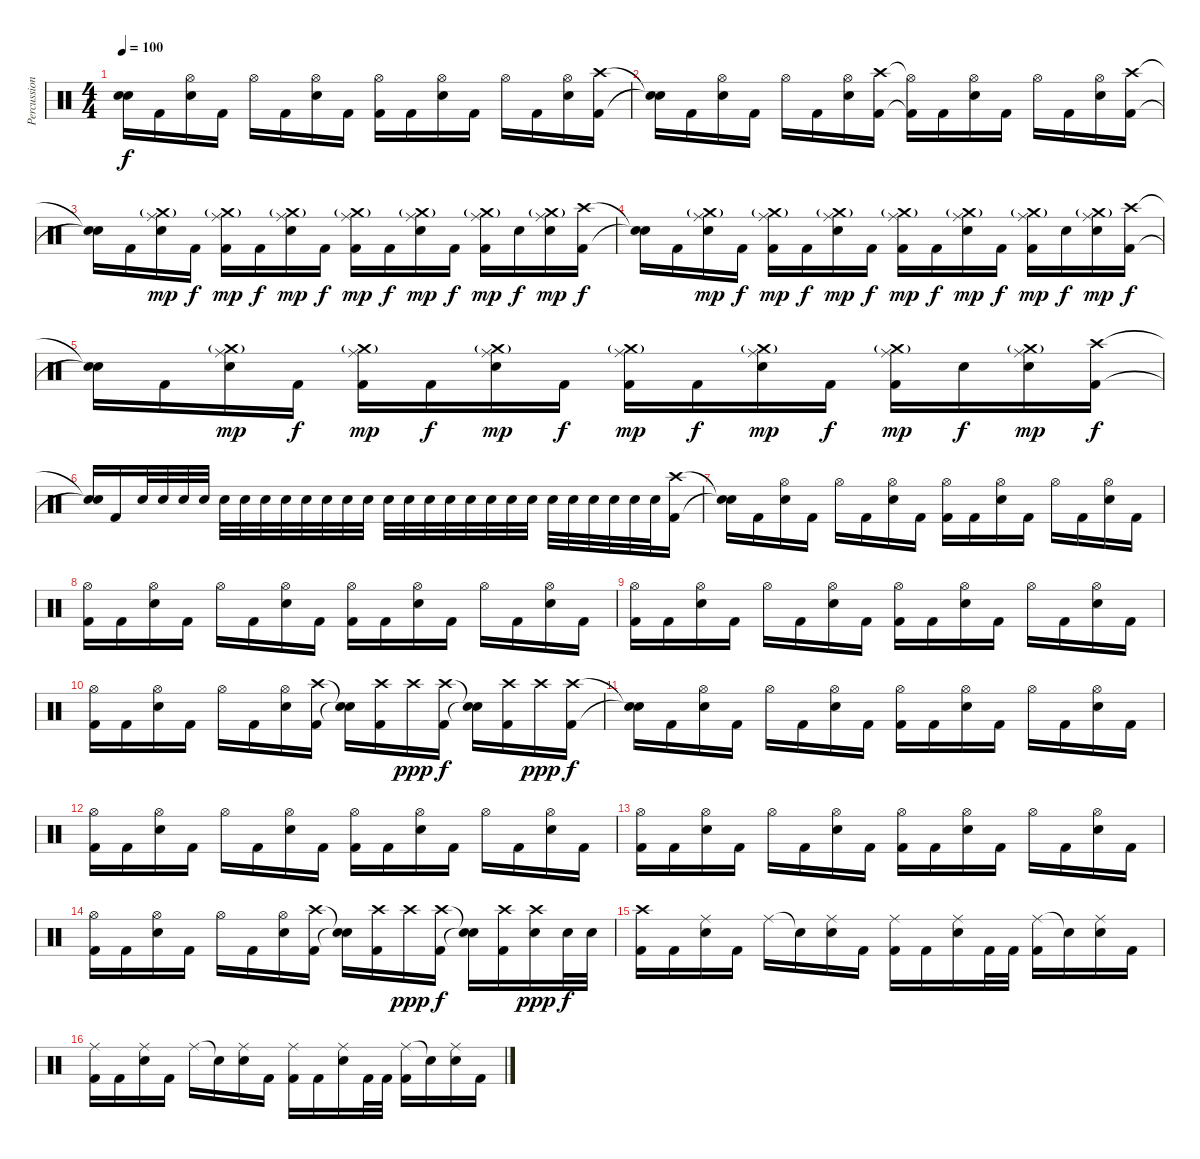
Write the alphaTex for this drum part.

\track ("Percussion" "Percussion") {instrument percussion}
\staff {score}
\articulation defaults
\ts (4 4)
\tempo 100
\clef neutral
\ks c
("Snare (hit)"{t} "Snare (hit)"{t}).16{dy f} "Kick (hit) 2".16 ("Hi-Hat (open)" "Electric Snare (hit)").16 "Kick (hit) 2".16 "Hi-Hat (open)".16 "Kick (hit) 2".16 ("Hi-Hat (open)" "Electric Snare (hit)").16 "Kick (hit) 2".16 ("Hi-Hat (open)" "Kick (hit) 2").16 "Kick (hit) 2".16 ("Hi-Hat (open)" "Electric Snare (hit)").16 "Kick (hit) 2".16 "Hi-Hat (open)".16 "Kick (hit) 2".16 ("Hi-Hat (open)" "Electric Snare (hit)").16 ("Crash high (hit)" "Kick (hit) 2").16 |
("Snare (hit)"{t} "Snare (hit)"{t}).16 "Kick (hit) 2".16 ("Hi-Hat (open)" "Electric Snare (hit)").16 "Kick (hit) 2".16 "Hi-Hat (open)".16 "Kick (hit) 2".16 ("Hi-Hat (open)" "Electric Snare (hit)").16 ("Crash high (hit)" "Kick (hit) 2").16 ("Hi-Hat (open)"{t} "Kick (hit) 2"{t}).16 "Kick (hit) 2".16 ("Hi-Hat (open)" "Electric Snare (hit)").16 "Kick (hit) 2".16 "Hi-Hat (open)".16 "Kick (hit) 2".16 ("Hi-Hat (open)" "Electric Snare (hit)").16 ("Crash high (hit)" "Kick (hit) 2").16 |
("Snare (hit)"{t} "Snare (hit)"{t}).16 "Kick (hit) 2".16 ("Crash medium (hit)"{g} "Ride (middle)" "Electric Snare (hit)").16{dy mp} "Kick (hit) 2".16{dy f} ("Crash medium (hit)"{g} "Ride (middle)" "Kick (hit) 2").16{dy mp} "Kick (hit) 2".16{dy f} ("Crash medium (hit)"{g} "Ride (middle)" "Electric Snare (hit)").16{dy mp} "Kick (hit) 2".16{dy f} ("Crash medium (hit)"{g} "Ride (middle)" "Kick (hit) 2").16{dy mp} "Kick (hit) 2".16{dy f} ("Crash medium (hit)"{g} "Ride (middle)" "Electric Snare (hit)").16{dy mp} "Kick (hit) 2".16{dy f} ("Crash medium (hit)"{g} "Ride (middle)" "Kick (hit) 2").16{dy mp} "Electric Snare (hit)".16{dy f} ("Crash medium (hit)"{g} "Ride (middle)" "Electric Snare (hit)").16{dy mp} ("Crash high (hit)" "Kick (hit) 2").16{dy f} |
("Snare (hit)"{t} "Snare (hit)"{t}).16 "Kick (hit) 2".16 ("Crash medium (hit)"{g} "Ride (middle)" "Electric Snare (hit)").16{dy mp} "Kick (hit) 2".16{dy f} ("Crash medium (hit)"{g} "Ride (middle)" "Kick (hit) 2").16{dy mp} "Kick (hit) 2".16{dy f} ("Crash medium (hit)"{g} "Ride (middle)" "Electric Snare (hit)").16{dy mp} "Kick (hit) 2".16{dy f} ("Crash medium (hit)"{g} "Ride (middle)" "Kick (hit) 2").16{dy mp} "Kick (hit) 2".16{dy f} ("Crash medium (hit)"{g} "Ride (middle)" "Electric Snare (hit)").16{dy mp} "Kick (hit) 2".16{dy f} ("Crash medium (hit)"{g} "Ride (middle)" "Kick (hit) 2").16{dy mp} "Electric Snare (hit)".16{dy f} ("Crash medium (hit)"{g} "Ride (middle)" "Electric Snare (hit)").16{dy mp} ("Crash high (hit)" "Kick (hit) 2").16{dy f} |
("Snare (hit)"{t} "Snare (hit)"{t}).16 "Kick (hit) 2".16 ("Crash medium (hit)"{g} "Ride (middle)" "Electric Snare (hit)").16{dy mp} "Kick (hit) 2".16{dy f} ("Crash medium (hit)"{g} "Ride (middle)" "Kick (hit) 2").16{dy mp} "Kick (hit) 2".16{dy f} ("Crash medium (hit)"{g} "Ride (middle)" "Electric Snare (hit)").16{dy mp} "Kick (hit) 2".16{dy f} ("Crash medium (hit)"{g} "Ride (middle)" "Kick (hit) 2").16{dy mp} "Kick (hit) 2".16{dy f} ("Crash medium (hit)"{g} "Ride (middle)" "Electric Snare (hit)").16{dy mp} "Kick (hit) 2".16{dy f} ("Crash medium (hit)"{g} "Ride (middle)" "Kick (hit) 2").16{dy mp} "Electric Snare (hit)".16{dy f} ("Crash medium (hit)"{g} "Ride (middle)" "Electric Snare (hit)").16{dy mp} ("Crash high (hit)" "Kick (hit) 2").16{dy f} |
("Snare (hit)"{t} "Snare (hit)"{t}).16 "Kick (hit) 2".16 "Electric Snare (hit)".32 "Electric Snare (hit)".32 "Electric Snare (hit)".32 "Electric Snare (hit)".32 "Electric Snare (hit)".32 "Electric Snare (hit)".32 "Electric Snare (hit)".32 "Electric Snare (hit)".32 "Electric Snare (hit)".32 "Electric Snare (hit)".32 "Electric Snare (hit)".32 "Electric Snare (hit)".32 "Electric Snare (hit)".32 "Electric Snare (hit)".32 "Electric Snare (hit)".32 "Electric Snare (hit)".32 "Electric Snare (hit)".32 "Electric Snare (hit)".32 "Electric Snare (hit)".32 "Electric Snare (hit)".32 "Electric Snare (hit)".32 "Electric Snare (hit)".32 "Electric Snare (hit)".32 "Electric Snare (hit)".32 "Electric Snare (hit)".32 "Electric Snare (hit)".32 ("Crash high (hit)" "Kick (hit) 2").16 |
("Snare (hit)"{t} "Snare (hit)"{t}).16 "Kick (hit) 2".16 ("Hi-Hat (open)" "Electric Snare (hit)").16 "Kick (hit) 2".16 "Hi-Hat (open)".16 "Kick (hit) 2".16 ("Hi-Hat (open)" "Electric Snare (hit)").16 "Kick (hit) 2".16 ("Hi-Hat (open)" "Kick (hit) 2").16 "Kick (hit) 2".16 ("Hi-Hat (open)" "Electric Snare (hit)").16 "Kick (hit) 2".16 "Hi-Hat (open)".16 "Kick (hit) 2".16 ("Hi-Hat (open)" "Electric Snare (hit)").16 "Kick (hit) 2".16 |
("Hi-Hat (open)" "Kick (hit) 2").16 "Kick (hit) 2".16 ("Hi-Hat (open)" "Electric Snare (hit)").16 "Kick (hit) 2".16 "Hi-Hat (open)".16 "Kick (hit) 2".16 ("Hi-Hat (open)" "Electric Snare (hit)").16 "Kick (hit) 2".16 ("Hi-Hat (open)" "Kick (hit) 2").16 "Kick (hit) 2".16 ("Hi-Hat (open)" "Electric Snare (hit)").16 "Kick (hit) 2".16 "Hi-Hat (open)".16 "Kick (hit) 2".16 ("Hi-Hat (open)" "Electric Snare (hit)").16 "Kick (hit) 2".16 |
("Hi-Hat (open)" "Kick (hit) 2").16 "Kick (hit) 2".16 ("Hi-Hat (open)" "Electric Snare (hit)").16 "Kick (hit) 2".16 "Hi-Hat (open)".16 "Kick (hit) 2".16 ("Hi-Hat (open)" "Electric Snare (hit)").16 "Kick (hit) 2".16 ("Hi-Hat (open)" "Kick (hit) 2").16 "Kick (hit) 2".16 ("Hi-Hat (open)" "Electric Snare (hit)").16 "Kick (hit) 2".16 "Hi-Hat (open)".16 "Kick (hit) 2".16 ("Hi-Hat (open)" "Electric Snare (hit)").16 "Kick (hit) 2".16 |
("Hi-Hat (open)" "Kick (hit) 2").16 "Kick (hit) 2".16 ("Hi-Hat (open)" "Electric Snare (hit)").16 "Kick (hit) 2".16 "Hi-Hat (open)".16 "Kick (hit) 2".16 ("Hi-Hat (open)" "Electric Snare (hit)").16 ("Crash high (hit)" "Kick (hit) 2").16 ("Snare (hit)"{t} "Snare (hit)"{t}).16 ("Crash high (hit)" "Kick (hit) 2").16 "Crash high (hit)".16{dy ppp} ("Crash high (hit)" "Kick (hit) 2").16{dy f} ("Snare (hit)"{t} "Snare (hit)"{t}).16 ("Crash high (hit)" "Kick (hit) 2").16 "Crash high (hit)".16{dy ppp} ("Crash high (hit)" "Kick (hit) 2").16{dy f} |
("Snare (hit)"{t} "Snare (hit)"{t}).16 "Kick (hit) 2".16 ("Hi-Hat (open)" "Electric Snare (hit)").16 "Kick (hit) 2".16 "Hi-Hat (open)".16 "Kick (hit) 2".16 ("Hi-Hat (open)" "Electric Snare (hit)").16 "Kick (hit) 2".16 ("Hi-Hat (open)" "Kick (hit) 2").16 "Kick (hit) 2".16 ("Hi-Hat (open)" "Electric Snare (hit)").16 "Kick (hit) 2".16 "Hi-Hat (open)".16 "Kick (hit) 2".16 ("Hi-Hat (open)" "Electric Snare (hit)").16 "Kick (hit) 2".16 |
("Hi-Hat (open)" "Kick (hit) 2").16 "Kick (hit) 2".16 ("Hi-Hat (open)" "Electric Snare (hit)").16 "Kick (hit) 2".16 "Hi-Hat (open)".16 "Kick (hit) 2".16 ("Hi-Hat (open)" "Electric Snare (hit)").16 "Kick (hit) 2".16 ("Hi-Hat (open)" "Kick (hit) 2").16 "Kick (hit) 2".16 ("Hi-Hat (open)" "Electric Snare (hit)").16 "Kick (hit) 2".16 "Hi-Hat (open)".16 "Kick (hit) 2".16 ("Hi-Hat (open)" "Electric Snare (hit)").16 "Kick (hit) 2".16 |
("Hi-Hat (open)" "Kick (hit) 2").16 "Kick (hit) 2".16 ("Hi-Hat (open)" "Electric Snare (hit)").16 "Kick (hit) 2".16 "Hi-Hat (open)".16 "Kick (hit) 2".16 ("Hi-Hat (open)" "Electric Snare (hit)").16 "Kick (hit) 2".16 ("Hi-Hat (open)" "Kick (hit) 2").16 "Kick (hit) 2".16 ("Hi-Hat (open)" "Electric Snare (hit)").16 "Kick (hit) 2".16 "Hi-Hat (open)".16 "Kick (hit) 2".16 ("Hi-Hat (open)" "Electric Snare (hit)").16 "Kick (hit) 2".16 |
("Hi-Hat (open)" "Kick (hit) 2").16 "Kick (hit) 2".16 ("Hi-Hat (open)" "Electric Snare (hit)").16 "Kick (hit) 2".16 "Hi-Hat (open)".16 "Kick (hit) 2".16 ("Hi-Hat (open)" "Electric Snare (hit)").16 ("Crash high (hit)" "Kick (hit) 2").16 ("Snare (hit)"{t} "Snare (hit)"{t}).16 ("Crash high (hit)" "Kick (hit) 2").16 "Crash high (hit)".16{dy ppp} ("Crash high (hit)" "Kick (hit) 2").16{dy f} ("Snare (hit)"{t} "Snare (hit)"{t}).16 ("Crash high (hit)" "Kick (hit) 2").16 ("Crash high (hit)" "Electric Snare (hit)").16{dy ppp} "Electric Snare (hit)".32{dy f} "Electric Snare (hit)".32 |
("Crash high (hit)" "Kick (hit) 2").16 "Kick (hit) 2".16 ("Ride (middle)" "Electric Snare (hit)").16 "Kick (hit) 2".16 "Ride (middle)".16 "Snare (hit)"{t}.16 ("Ride (middle)" "Electric Snare (hit)").16 "Kick (hit) 2".16 ("Ride (middle)" "Kick (hit) 2").16 "Kick (hit) 2".16 ("Ride (middle)" "Electric Snare (hit)").16 "Kick (hit) 2".32 "Kick (hit) 2".32 ("Ride (middle)" "Kick (hit) 2").16 "Snare (hit)"{t}.16 ("Ride (middle)" "Electric Snare (hit)").16 "Kick (hit) 2".16 |
("Ride (middle)" "Kick (hit) 2").16 "Kick (hit) 2".16 ("Ride (middle)" "Electric Snare (hit)").16 "Kick (hit) 2".16 "Ride (middle)".16 "Snare (hit)"{t}.16 ("Ride (middle)" "Electric Snare (hit)").16 "Kick (hit) 2".16 ("Ride (middle)" "Kick (hit) 2").16 "Kick (hit) 2".16 ("Ride (middle)" "Electric Snare (hit)").16 "Kick (hit) 2".32 "Kick (hit) 2".32 ("Ride (middle)" "Kick (hit) 2").16 "Snare (hit)"{t}.16 ("Ride (middle)" "Electric Snare (hit)").16 "Kick (hit) 2".16
